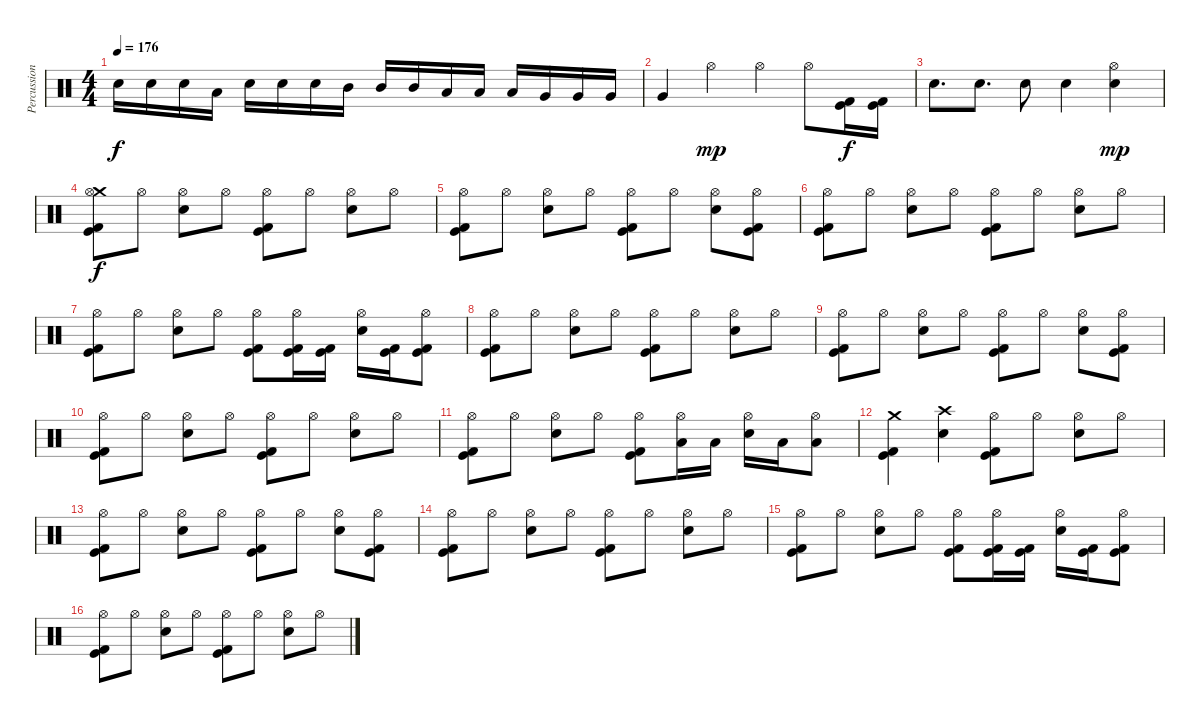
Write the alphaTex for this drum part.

\track ("Percussions" "Percussion") {instrument percussion}
\staff {score}
\articulation defaults
\ts (4 4)
\tempo 176
\clef neutral
\ks c "Electric Snare (hit)".16{dy f} "Electric Snare (hit)".16 "Electric Snare (hit)".16 "Low Tom (hit)".16 "Electric Snare (hit)".16 "Electric Snare (hit)".16 "Electric Snare (hit)".16 "Mid Tom (hit)".16 "Mid Tom (hit)".16 "Mid Tom (hit)".16 "Low Tom (hit)".16 "Low Tom (hit)".16 "Low Tom (hit)".16 "Very Low Tom (hit)".16 "Very Low Tom (hit)".16 "Very Low Tom (hit)".16
|
"Very Low Tom (hit)".4 "Hi-Hat (open)".4{dy mp} "Hi-Hat (open)".4 "Hi-Hat (open)".8 ("Kick (hit)" "Kick (hit) 2").16{dy f} ("Kick (hit)" "Kick (hit) 2").16 |
"Electric Snare (hit)".8{d} "Electric Snare (hit)".8{d} "Electric Snare (hit)".8 "Electric Snare (hit)".4 ("Hi-Hat (open)" "Electric Snare (hit)").4{dy mp} |
("Crash medium (hit)" "Hi-Hat (open)" "Kick (hit)" "Kick (hit) 2").8{dy f} "Hi-Hat (open)".8 ("Hi-Hat (open)" "Electric Snare (hit)").8 "Hi-Hat (open)".8 ("Hi-Hat (open)" "Kick (hit)" "Kick (hit) 2").8 "Hi-Hat (open)".8 ("Hi-Hat (open)" "Electric Snare (hit)").8 "Hi-Hat (open)".8 |
("Hi-Hat (open)" "Kick (hit)" "Kick (hit) 2").8 "Hi-Hat (open)".8 ("Hi-Hat (open)" "Electric Snare (hit)").8 "Hi-Hat (open)".8 ("Hi-Hat (open)" "Kick (hit)" "Kick (hit) 2").8 "Hi-Hat (open)".8 ("Hi-Hat (open)" "Electric Snare (hit)").8 ("Hi-Hat (open)" "Kick (hit)" "Kick (hit) 2").8 |
("Hi-Hat (open)" "Kick (hit)" "Kick (hit) 2").8 "Hi-Hat (open)".8 ("Hi-Hat (open)" "Electric Snare (hit)").8 "Hi-Hat (open)".8 ("Hi-Hat (open)" "Kick (hit)" "Kick (hit) 2").8 "Hi-Hat (open)".8 ("Hi-Hat (open)" "Electric Snare (hit)").8 "Hi-Hat (open)".8 |
("Hi-Hat (open)" "Kick (hit)" "Kick (hit) 2").8 "Hi-Hat (open)".8 ("Hi-Hat (open)" "Electric Snare (hit)").8 "Hi-Hat (open)".8 ("Hi-Hat (open)" "Kick (hit)" "Kick (hit) 2").8 ("Hi-Hat (open)" "Kick (hit)" "Kick (hit) 2").16 ("Kick (hit)" "Kick (hit) 2").16 ("Hi-Hat (open)" "Electric Snare (hit)").16 ("Kick (hit)" "Kick (hit) 2").16 ("Hi-Hat (open)" "Kick (hit)" "Kick (hit) 2").8 |
("Hi-Hat (open)" "Kick (hit)" "Kick (hit) 2").8 "Hi-Hat (open)".8 ("Hi-Hat (open)" "Electric Snare (hit)").8 "Hi-Hat (open)".8 ("Hi-Hat (open)" "Kick (hit)" "Kick (hit) 2").8 "Hi-Hat (open)".8 ("Hi-Hat (open)" "Electric Snare (hit)").8 "Hi-Hat (open)".8 |
("Hi-Hat (open)" "Kick (hit)" "Kick (hit) 2").8 "Hi-Hat (open)".8 ("Hi-Hat (open)" "Electric Snare (hit)").8 "Hi-Hat (open)".8 ("Hi-Hat (open)" "Kick (hit)" "Kick (hit) 2").8 "Hi-Hat (open)".8 ("Hi-Hat (open)" "Electric Snare (hit)").8 ("Hi-Hat (open)" "Kick (hit)" "Kick (hit) 2").8 |
("Hi-Hat (open)" "Kick (hit)" "Kick (hit) 2").8 "Hi-Hat (open)".8 ("Hi-Hat (open)" "Electric Snare (hit)").8 "Hi-Hat (open)".8 ("Hi-Hat (open)" "Kick (hit)" "Kick (hit) 2").8 "Hi-Hat (open)".8 ("Hi-Hat (open)" "Electric Snare (hit)").8 "Hi-Hat (open)".8 |
("Hi-Hat (open)" "Kick (hit)" "Kick (hit) 2").8 "Hi-Hat (open)".8 ("Hi-Hat (open)" "Electric Snare (hit)").8 "Hi-Hat (open)".8 ("Hi-Hat (open)" "Kick (hit)" "Kick (hit) 2").8 ("Hi-Hat (open)" "Low Tom (hit)").16 "Low Tom (hit)".16 ("Hi-Hat (open)" "Electric Snare (hit)").16 "Low Floor Tom (hit)".16 ("Hi-Hat (open)" "Low Floor Tom (hit)").8 |
("Crash medium (hit)" "Kick (hit)" "Kick (hit) 2").4 ("Crash high (hit)" "Electric Snare (hit)").4 ("Hi-Hat (open)" "Kick (hit)" "Kick (hit) 2").8 "Hi-Hat (open)".8 ("Hi-Hat (open)" "Electric Snare (hit)").8 "Hi-Hat (open)".8 |
("Hi-Hat (open)" "Kick (hit)" "Kick (hit) 2").8 "Hi-Hat (open)".8 ("Hi-Hat (open)" "Electric Snare (hit)").8 "Hi-Hat (open)".8 ("Hi-Hat (open)" "Kick (hit)" "Kick (hit) 2").8 "Hi-Hat (open)".8 ("Hi-Hat (open)" "Electric Snare (hit)").8 ("Hi-Hat (open)" "Kick (hit)" "Kick (hit) 2").8 |
("Hi-Hat (open)" "Kick (hit)" "Kick (hit) 2").8 "Hi-Hat (open)".8 ("Hi-Hat (open)" "Electric Snare (hit)").8 "Hi-Hat (open)".8 ("Hi-Hat (open)" "Kick (hit)" "Kick (hit) 2").8 "Hi-Hat (open)".8 ("Hi-Hat (open)" "Electric Snare (hit)").8 "Hi-Hat (open)".8 |
("Hi-Hat (open)" "Kick (hit)" "Kick (hit) 2").8 "Hi-Hat (open)".8 ("Hi-Hat (open)" "Electric Snare (hit)").8 "Hi-Hat (open)".8 ("Hi-Hat (open)" "Kick (hit)" "Kick (hit) 2").8 ("Hi-Hat (open)" "Kick (hit)" "Kick (hit) 2").16 ("Kick (hit)" "Kick (hit) 2").16 ("Hi-Hat (open)" "Electric Snare (hit)").16 ("Kick (hit)" "Kick (hit) 2").16 ("Hi-Hat (open)" "Kick (hit)" "Kick (hit) 2").8 |
("Hi-Hat (open)" "Kick (hit)" "Kick (hit) 2").8 "Hi-Hat (open)".8 ("Hi-Hat (open)" "Electric Snare (hit)").8 "Hi-Hat (open)".8 ("Hi-Hat (open)" "Kick (hit)" "Kick (hit) 2").8 "Hi-Hat (open)".8 ("Hi-Hat (open)" "Electric Snare (hit)").8 "Hi-Hat (open)".8
